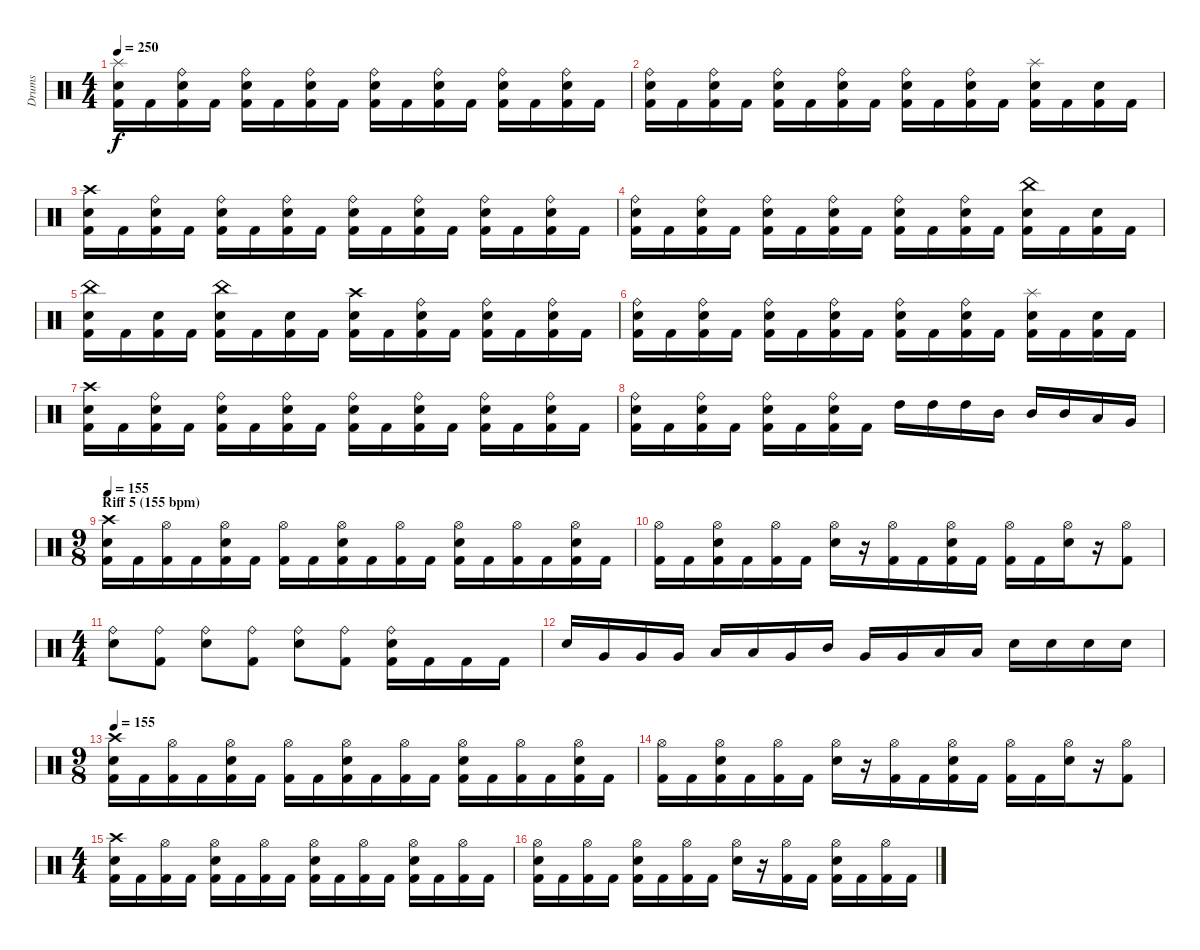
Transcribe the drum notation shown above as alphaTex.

\track ("Drums" "Drums") {instrument percussion}
\staff {score}
\articulation defaults
\ts (4 4)
\tempo 250
\clef neutral
\ks c
("Kick (hit) 2" "Snare (hit) 2" "Splash (hit)").16{dy f} "Kick (hit) 2".16 ("Kick (hit) 2" "Snare (hit) 2" "Ride (bell)").16 "Kick (hit) 2".16 ("Kick (hit) 2" "Snare (hit) 2" "Ride (bell)").16 "Kick (hit) 2".16 ("Kick (hit) 2" "Snare (hit) 2" "Ride (bell)").16 "Kick (hit) 2".16 ("Kick (hit) 2" "Snare (hit) 2" "Ride (bell)").16 "Kick (hit) 2".16 ("Kick (hit) 2" "Snare (hit) 2" "Ride (bell)").16 "Kick (hit) 2".16 ("Kick (hit) 2" "Snare (hit) 2" "Ride (bell)").16 "Kick (hit) 2".16 ("Kick (hit) 2" "Snare (hit) 2" "Ride (bell)").16 "Kick (hit) 2".16 |
("Kick (hit) 2" "Snare (hit) 2" "Ride (bell)").16 "Kick (hit) 2".16 ("Kick (hit) 2" "Snare (hit) 2" "Ride (bell)").16 "Kick (hit) 2".16 ("Kick (hit) 2" "Snare (hit) 2" "Ride (bell)").16 "Kick (hit) 2".16 ("Kick (hit) 2" "Snare (hit) 2" "Ride (bell)").16 "Kick (hit) 2".16 ("Kick (hit) 2" "Snare (hit) 2" "Ride (bell)").16 "Kick (hit) 2".16 ("Kick (hit) 2" "Snare (hit) 2" "Ride (bell)").16 "Kick (hit) 2".16 ("Kick (hit) 2" "Snare (hit) 2" "Splash (hit)").16 "Kick (hit) 2".16 ("Kick (hit) 2" "Snare (hit) 2").16 "Kick (hit) 2".16 |
("Kick (hit) 2" "Snare (hit) 2" "Crash high (hit)").16 "Kick (hit) 2".16 ("Kick (hit) 2" "Snare (hit) 2" "Ride (bell)").16 "Kick (hit) 2".16 ("Kick (hit) 2" "Snare (hit) 2" "Ride (bell)").16 "Kick (hit) 2".16 ("Kick (hit) 2" "Snare (hit) 2" "Ride (bell)").16 "Kick (hit) 2".16 ("Kick (hit) 2" "Snare (hit) 2" "Ride (bell)").16 "Kick (hit) 2".16 ("Kick (hit) 2" "Snare (hit) 2" "Ride (bell)").16 "Kick (hit) 2".16 ("Kick (hit) 2" "Snare (hit) 2" "Ride (bell)").16 "Kick (hit) 2".16 ("Kick (hit) 2" "Snare (hit) 2" "Ride (bell)").16 "Kick (hit) 2".16 |
("Kick (hit) 2" "Snare (hit) 2" "Ride (bell)").16 "Kick (hit) 2".16 ("Kick (hit) 2" "Snare (hit) 2" "Ride (bell)").16 "Kick (hit) 2".16 ("Kick (hit) 2" "Snare (hit) 2" "Ride (bell)").16 "Kick (hit) 2".16 ("Kick (hit) 2" "Snare (hit) 2" "Ride (bell)").16 "Kick (hit) 2".16 ("Kick (hit) 2" "Snare (hit) 2" "Ride (bell)").16 "Kick (hit) 2".16 ("Kick (hit) 2" "Snare (hit) 2" "Ride (bell)").16 "Kick (hit) 2".16 ("Kick (hit) 2" "Snare (hit) 2" "China (hit)").16 "Kick (hit) 2".16 ("Kick (hit) 2" "Snare (hit) 2").16 "Kick (hit) 2".16 |
("Kick (hit) 2" "Snare (hit) 2" "China (hit)").16 "Kick (hit) 2".16 ("Kick (hit) 2" "Snare (hit) 2").16 "Kick (hit) 2".16 ("Kick (hit) 2" "Snare (hit) 2" "China (hit)").16 "Kick (hit) 2".16 ("Kick (hit) 2" "Snare (hit) 2").16 "Kick (hit) 2".16 ("Kick (hit) 2" "Snare (hit) 2" "Crash high (hit)").16 "Kick (hit) 2".16 ("Kick (hit) 2" "Snare (hit) 2" "Ride (bell)").16 "Kick (hit) 2".16 ("Kick (hit) 2" "Snare (hit) 2" "Ride (bell)").16 "Kick (hit) 2".16 ("Kick (hit) 2" "Snare (hit) 2" "Ride (bell)").16 "Kick (hit) 2".16 |
("Kick (hit) 2" "Snare (hit) 2" "Ride (bell)").16 "Kick (hit) 2".16 ("Kick (hit) 2" "Snare (hit) 2" "Ride (bell)").16 "Kick (hit) 2".16 ("Kick (hit) 2" "Snare (hit) 2" "Ride (bell)").16 "Kick (hit) 2".16 ("Kick (hit) 2" "Snare (hit) 2" "Ride (bell)").16 "Kick (hit) 2".16 ("Kick (hit) 2" "Snare (hit) 2" "Ride (bell)").16 "Kick (hit) 2".16 ("Kick (hit) 2" "Snare (hit) 2" "Ride (bell)").16 "Kick (hit) 2".16 ("Kick (hit) 2" "Snare (hit) 2" "Splash (hit)").16 "Kick (hit) 2".16 ("Kick (hit) 2" "Snare (hit) 2").16 "Kick (hit) 2".16 |
("Kick (hit) 2" "Snare (hit) 2" "Crash high (hit)").16 "Kick (hit) 2".16 ("Kick (hit) 2" "Snare (hit) 2" "Ride (bell)").16 "Kick (hit) 2".16 ("Kick (hit) 2" "Snare (hit) 2" "Ride (bell)").16 "Kick (hit) 2".16 ("Kick (hit) 2" "Snare (hit) 2" "Ride (bell)").16 "Kick (hit) 2".16 ("Kick (hit) 2" "Snare (hit) 2" "Ride (bell)").16 "Kick (hit) 2".16 ("Kick (hit) 2" "Snare (hit) 2" "Ride (bell)").16 "Kick (hit) 2".16 ("Kick (hit) 2" "Snare (hit) 2" "Ride (bell)").16 "Kick (hit) 2".16 ("Kick (hit) 2" "Snare (hit) 2" "Ride (bell)").16 "Kick (hit) 2".16 |
("Kick (hit) 2" "Snare (hit) 2" "Ride (bell)").16 "Kick (hit) 2".16 ("Kick (hit) 2" "Snare (hit) 2" "Ride (bell)").16 "Kick (hit) 2".16 ("Kick (hit) 2" "Snare (hit) 2" "Ride (bell)").16 "Kick (hit) 2".16 ("Kick (hit) 2" "Snare (hit) 2" "Ride (bell)").16 "Kick (hit) 2".16 "High Tom (hit)".16 "High Tom (hit)".16 "High Tom (hit)".16 "Mid Tom (hit)".16 "Mid Tom (hit)".16 "Mid Tom (hit)".16 "Low Tom (hit)".16 "Very Low Tom (hit)".16 |
\ts (9 8)
\section ("" "Riff 5 (155 bpm)")
\tempo 155
("Kick (hit) 2" "Snare (hit) 2" "Crash high (hit)").16 "Kick (hit) 2".16 ("Kick (hit) 2" "Hi-Hat (open)").16 "Kick (hit) 2".16 ("Kick (hit) 2" "Snare (hit) 2" "Hi-Hat (open)").16 "Kick (hit) 2".16 ("Kick (hit) 2" "Hi-Hat (open)").16 "Kick (hit) 2".16 ("Kick (hit) 2" "Snare (hit) 2" "Hi-Hat (open)").16 "Kick (hit) 2".16 ("Kick (hit) 2" "Hi-Hat (open)").16 "Kick (hit) 2".16 ("Kick (hit) 2" "Snare (hit) 2" "Hi-Hat (open)").16 "Kick (hit) 2".16 ("Kick (hit) 2" "Hi-Hat (open)").16 "Kick (hit) 2".16 ("Kick (hit) 2" "Snare (hit) 2" "Hi-Hat (open)").16 "Kick (hit) 2".16 |
("Kick (hit) 2" "Hi-Hat (open)").16 "Kick (hit) 2".16 ("Kick (hit) 2" "Snare (hit) 2" "Hi-Hat (open)").16 "Kick (hit) 2".16 ("Kick (hit) 2" "Hi-Hat (open)").16 "Kick (hit) 2".16 ("Snare (hit) 2" "Hi-Hat (open)").16 r.16 ("Kick (hit) 2" "Hi-Hat (open)").16 "Kick (hit) 2".16 ("Kick (hit) 2" "Snare (hit) 2" "Hi-Hat (open)").16 "Kick (hit) 2".16 ("Kick (hit) 2" "Hi-Hat (open)").16 "Kick (hit) 2".16 ("Snare (hit) 2" "Hi-Hat (open)").16 r.16 ("Kick (hit) 2" "Hi-Hat (open)").8 |
\ts (4 4)
("Snare (hit) 2" "Ride (bell)").8 ("Kick (hit) 2" "Ride (bell)").8 ("Snare (hit) 2" "Ride (bell)").8 ("Kick (hit) 2" "Ride (bell)").8 ("Snare (hit) 2" "Ride (bell)").8 ("Kick (hit) 2" "Ride (bell)").8 ("Kick (hit) 2" "Snare (hit) 2" "Ride (bell)").16 "Kick (hit) 2".16 "Kick (hit) 2".16 "Kick (hit) 2".16 |
"Snare (hit) 2".16 "Very Low Tom (hit)".16 "Very Low Tom (hit)".16 "Very Low Tom (hit)".16 "Low Tom (hit)".16 "Low Tom (hit)".16 "Very Low Tom (hit)".16 "Mid Tom (hit)".16 "Very Low Tom (hit)".16 "Very Low Tom (hit)".16 "Low Tom (hit)".16 "Low Tom (hit)".16 "Snare (hit) 2".16 "Snare (hit) 2".16 "Snare (hit) 2".16 "Snare (hit) 2".16 |
\ts (9 8)
\tempo 155
("Kick (hit) 2" "Snare (hit) 2" "Crash high (hit)").16 "Kick (hit) 2".16 ("Kick (hit) 2" "Hi-Hat (open)").16 "Kick (hit) 2".16 ("Kick (hit) 2" "Snare (hit) 2" "Hi-Hat (open)").16 "Kick (hit) 2".16 ("Kick (hit) 2" "Hi-Hat (open)").16 "Kick (hit) 2".16 ("Kick (hit) 2" "Snare (hit) 2" "Hi-Hat (open)").16 "Kick (hit) 2".16 ("Kick (hit) 2" "Hi-Hat (open)").16 "Kick (hit) 2".16 ("Kick (hit) 2" "Snare (hit) 2" "Hi-Hat (open)").16 "Kick (hit) 2".16 ("Kick (hit) 2" "Hi-Hat (open)").16 "Kick (hit) 2".16 ("Kick (hit) 2" "Snare (hit) 2" "Hi-Hat (open)").16 "Kick (hit) 2".16 |
("Kick (hit) 2" "Hi-Hat (open)").16 "Kick (hit) 2".16 ("Kick (hit) 2" "Snare (hit) 2" "Hi-Hat (open)").16 "Kick (hit) 2".16 ("Kick (hit) 2" "Hi-Hat (open)").16 "Kick (hit) 2".16 ("Snare (hit) 2" "Hi-Hat (open)").16 r.16 ("Kick (hit) 2" "Hi-Hat (open)").16 "Kick (hit) 2".16 ("Kick (hit) 2" "Snare (hit) 2" "Hi-Hat (open)").16 "Kick (hit) 2".16 ("Kick (hit) 2" "Hi-Hat (open)").16 "Kick (hit) 2".16 ("Snare (hit) 2" "Hi-Hat (open)").16 r.16 ("Kick (hit) 2" "Hi-Hat (open)").8 |
\ts (4 4)
("Kick (hit) 2" "Snare (hit) 2" "Crash high (hit)").16 "Kick (hit) 2".16 ("Kick (hit) 2" "Hi-Hat (open)").16 "Kick (hit) 2".16 ("Kick (hit) 2" "Snare (hit) 2" "Hi-Hat (open)").16 "Kick (hit) 2".16 ("Kick (hit) 2" "Hi-Hat (open)").16 "Kick (hit) 2".16 ("Kick (hit) 2" "Snare (hit) 2" "Hi-Hat (open)").16 "Kick (hit) 2".16 ("Kick (hit) 2" "Hi-Hat (open)").16 "Kick (hit) 2".16 ("Kick (hit) 2" "Snare (hit) 2" "Hi-Hat (open)").16 "Kick (hit) 2".16 ("Kick (hit) 2" "Hi-Hat (open)").16 "Kick (hit) 2".16 |
("Kick (hit) 2" "Snare (hit) 2" "Hi-Hat (open)").16 "Kick (hit) 2".16 ("Kick (hit) 2" "Hi-Hat (open)").16 "Kick (hit) 2".16 ("Kick (hit) 2" "Snare (hit) 2" "Hi-Hat (open)").16 "Kick (hit) 2".16 ("Kick (hit) 2" "Hi-Hat (open)").16 "Kick (hit) 2".16 ("Snare (hit) 2" "Hi-Hat (open)").16 r.16 ("Kick (hit) 2" "Hi-Hat (open)").16 "Kick (hit) 2".16 ("Kick (hit) 2" "Snare (hit) 2" "Hi-Hat (open)").16 "Kick (hit) 2".16 ("Kick (hit) 2" "Hi-Hat (open)").16 "Kick (hit) 2".16
